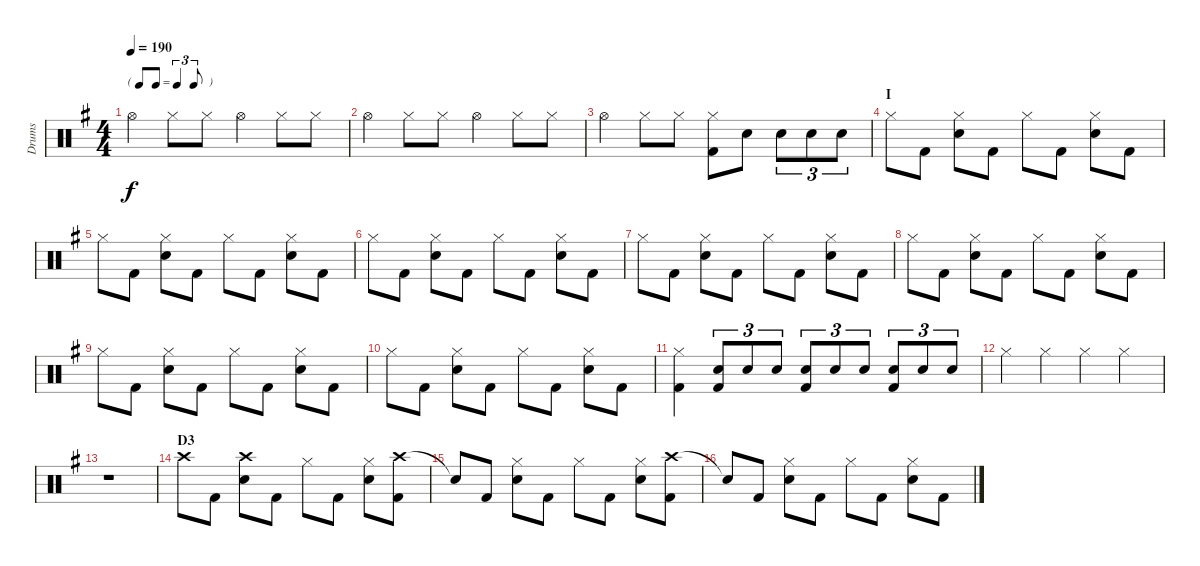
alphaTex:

\track ("Drums" "Drums") {instrument percussion}
\staff {score}
\articulation defaults
\ts (4 4)
\tf triplet8th
\tempo 190
\clef neutral
\ks g "Hi-Hat (open)".4{dy f} "Hi-Hat (closed)".8 "Hi-Hat (closed)".8 "Hi-Hat (open)".4 "Hi-Hat (closed)".8 "Hi-Hat (closed)".8
|
"Hi-Hat (open)".4 "Hi-Hat (closed)".8 "Hi-Hat (closed)".8 "Hi-Hat (open)".4 "Hi-Hat (closed)".8 "Hi-Hat (closed)".8 |
"Hi-Hat (open)".4 "Hi-Hat (closed)".8 "Hi-Hat (closed)".8 ("Hi-Hat (closed)" "Kick (hit) 2").8 "Snare (hit) 2".8 "Snare (hit) 2".8{tu (3 2)} "Snare (hit) 2".8{tu (3 2)} "Snare (hit) 2".8{tu (3 2)} |
\section ("" "I")
"Hi-Hat (closed)".8 "Kick (hit) 2".8 ("Hi-Hat (closed)" "Snare (hit) 2").8 "Kick (hit) 2".8 "Hi-Hat (closed)".8 "Kick (hit) 2".8 ("Hi-Hat (closed)" "Snare (hit) 2").8 "Kick (hit) 2".8 |
"Hi-Hat (closed)".8 "Kick (hit) 2".8 ("Hi-Hat (closed)" "Snare (hit) 2").8 "Kick (hit) 2".8 "Hi-Hat (closed)".8 "Kick (hit) 2".8 ("Hi-Hat (closed)" "Snare (hit) 2").8 "Kick (hit) 2".8 |
"Hi-Hat (closed)".8 "Kick (hit) 2".8 ("Hi-Hat (closed)" "Snare (hit) 2").8 "Kick (hit) 2".8 "Hi-Hat (closed)".8 "Kick (hit) 2".8 ("Hi-Hat (closed)" "Snare (hit) 2").8 "Kick (hit) 2".8 |
"Hi-Hat (closed)".8 "Kick (hit) 2".8 ("Hi-Hat (closed)" "Snare (hit) 2").8 "Kick (hit) 2".8 "Hi-Hat (closed)".8 "Kick (hit) 2".8 ("Hi-Hat (closed)" "Snare (hit) 2").8 "Kick (hit) 2".8 |
"Hi-Hat (closed)".8 "Kick (hit) 2".8 ("Hi-Hat (closed)" "Snare (hit) 2").8 "Kick (hit) 2".8 "Hi-Hat (closed)".8 "Kick (hit) 2".8 ("Hi-Hat (closed)" "Snare (hit) 2").8 "Kick (hit) 2".8 |
"Hi-Hat (closed)".8 "Kick (hit) 2".8 ("Hi-Hat (closed)" "Snare (hit) 2").8 "Kick (hit) 2".8 "Hi-Hat (closed)".8 "Kick (hit) 2".8 ("Hi-Hat (closed)" "Snare (hit) 2").8 "Kick (hit) 2".8 |
"Hi-Hat (closed)".8 "Kick (hit) 2".8 ("Hi-Hat (closed)" "Snare (hit) 2").8 "Kick (hit) 2".8 "Hi-Hat (closed)".8 "Kick (hit) 2".8 ("Hi-Hat (closed)" "Snare (hit) 2").8 "Kick (hit) 2".8 |
("Hi-Hat (closed)" "Kick (hit) 2").4 ("Snare (hit) 2" "Kick (hit) 2").8{tu (3 2)} "Snare (hit) 2".8{tu (3 2)} "Snare (hit) 2".8{tu (3 2)} ("Snare (hit) 2" "Kick (hit) 2").8{tu (3 2)} "Snare (hit) 2".8{tu (3 2)} "Snare (hit) 2".8{tu (3 2)} ("Snare (hit) 2" "Kick (hit) 2").8{tu (3 2)} "Snare (hit) 2".8{tu (3 2)} "Snare (hit) 2".8{tu (3 2)} |
"Hi-Hat (closed)".4 "Hi-Hat (closed)".4 "Hi-Hat (closed)".4 "Hi-Hat (closed)".4 |
r.1 |
\section ("" "D3")
"Crash high (hit)".8 "Kick (hit) 2".8 ("Crash high (hit)" "Snare (hit) 2").8 "Kick (hit) 2".8 "Hi-Hat (closed)".8 "Kick (hit) 2".8 ("Hi-Hat (closed)" "Snare (hit) 2").8 ("Crash high (hit)" "Kick (hit) 2").8 |
"Snare (hit)"{t}.8 "Kick (hit) 2".8 ("Hi-Hat (closed)" "Snare (hit) 2").8 "Kick (hit) 2".8 "Hi-Hat (closed)".8 "Kick (hit) 2".8 ("Hi-Hat (closed)" "Snare (hit) 2").8 ("Crash high (hit)" "Kick (hit) 2").8 |
"Snare (hit)"{t}.8 "Kick (hit) 2".8 ("Hi-Hat (closed)" "Snare (hit) 2").8 "Kick (hit) 2".8 "Hi-Hat (closed)".8 "Kick (hit) 2".8 ("Hi-Hat (closed)" "Snare (hit) 2").8 "Kick (hit) 2".8
